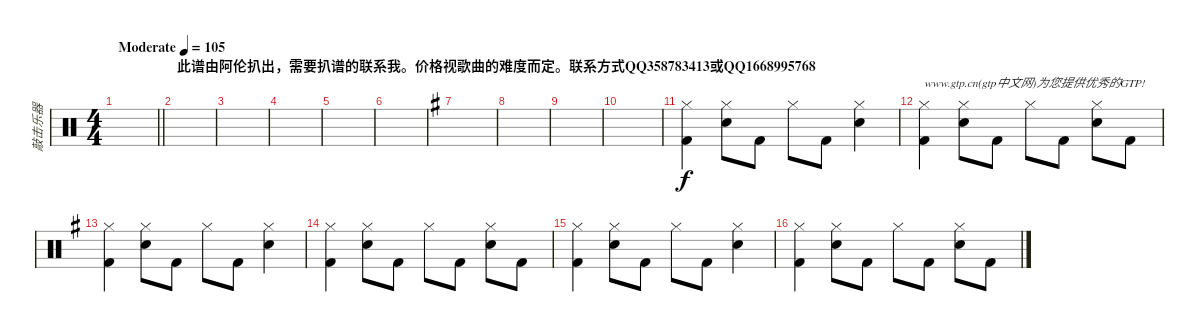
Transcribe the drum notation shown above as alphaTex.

\track ("敲击乐器" "敲击乐器") {instrument percussion}
\staff {score}
\articulation defaults
\ts (4 4)
\tempo (105 "Moderate")
\clef neutral
\barLineRight lightlight
\ks c
|
\section ("" "此谱由阿伦扒出，需要扒谱的联系我。价格视歌曲的难度而定。联系方式QQ358783413或QQ1668995768")
|
|
|
|
|
\ks g
|
|
|
|
("Hi-Hat (closed)" "Kick (hit) 2").4 ("Hi-Hat (closed)" "Snare (hit) 2").8 "Kick (hit) 2".8 "Hi-Hat (closed)".8 "Kick (hit) 2".8 ("Hi-Hat (closed)" "Snare (hit) 2").4 |
("Hi-Hat (closed)" "Kick (hit) 2").4{txt "www.gtp.cn(gtp中文网)为您提供优秀的GTP!"} ("Hi-Hat (closed)" "Snare (hit) 2").8 "Kick (hit) 2".8 "Hi-Hat (closed)".8 "Kick (hit) 2".8 ("Hi-Hat (closed)" "Snare (hit) 2").8 "Kick (hit) 2".8 |
("Hi-Hat (closed)" "Kick (hit) 2").4 ("Hi-Hat (closed)" "Snare (hit) 2").8 "Kick (hit) 2".8 "Hi-Hat (closed)".8 "Kick (hit) 2".8 ("Hi-Hat (closed)" "Snare (hit) 2").4 |
("Hi-Hat (closed)" "Kick (hit) 2").4 ("Hi-Hat (closed)" "Snare (hit) 2").8 "Kick (hit) 2".8 "Hi-Hat (closed)".8 "Kick (hit) 2".8 ("Hi-Hat (closed)" "Snare (hit) 2").8 "Kick (hit) 2".8 |
("Hi-Hat (closed)" "Kick (hit) 2").4 ("Hi-Hat (closed)" "Snare (hit) 2").8 "Kick (hit) 2".8 "Hi-Hat (closed)".8 "Kick (hit) 2".8 ("Hi-Hat (closed)" "Snare (hit) 2").4 |
("Hi-Hat (closed)" "Kick (hit) 2").4 ("Hi-Hat (closed)" "Snare (hit) 2").8 "Kick (hit) 2".8 "Hi-Hat (closed)".8 "Kick (hit) 2".8 ("Hi-Hat (closed)" "Snare (hit) 2").8 "Kick (hit) 2".8
